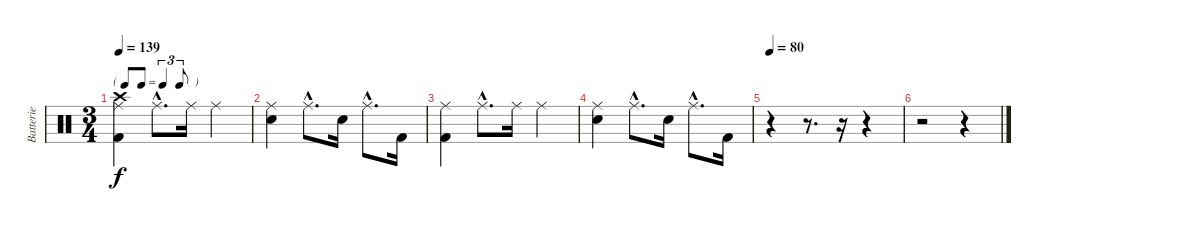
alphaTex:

\track ("Batterie" "Batterie") {instrument percussion}
\staff {score}
\articulation defaults
\ts (3 4)
\tf triplet8th
\tempo 139
\clef neutral
\ks c
("Crash high (hit)" "Ride (middle)" "Kick (hit) 2").4{dy f} "Ride (middle)"{hac}.8{d} "Ride (middle)".16 "Ride (middle)".4 |
("Ride (middle)" "Snare (hit) 2").4 "Ride (middle)"{hac}.8{d} "Snare (hit) 2".16 "Ride (middle)"{hac}.8{d} "Kick (hit) 2".16 |
("Ride (middle)" "Kick (hit) 2").4 "Ride (middle)"{hac}.8{d} "Ride (middle)".16 "Ride (middle)".4 |
("Ride (middle)" "Snare (hit) 2").4 "Ride (middle)"{hac}.8{d} "Snare (hit) 2".16 "Ride (middle)"{hac}.8{d} "Kick (hit) 2".16 |
\tempo 80
r.4 r.8{d} r.16 r.4 |
r.2 r.4
